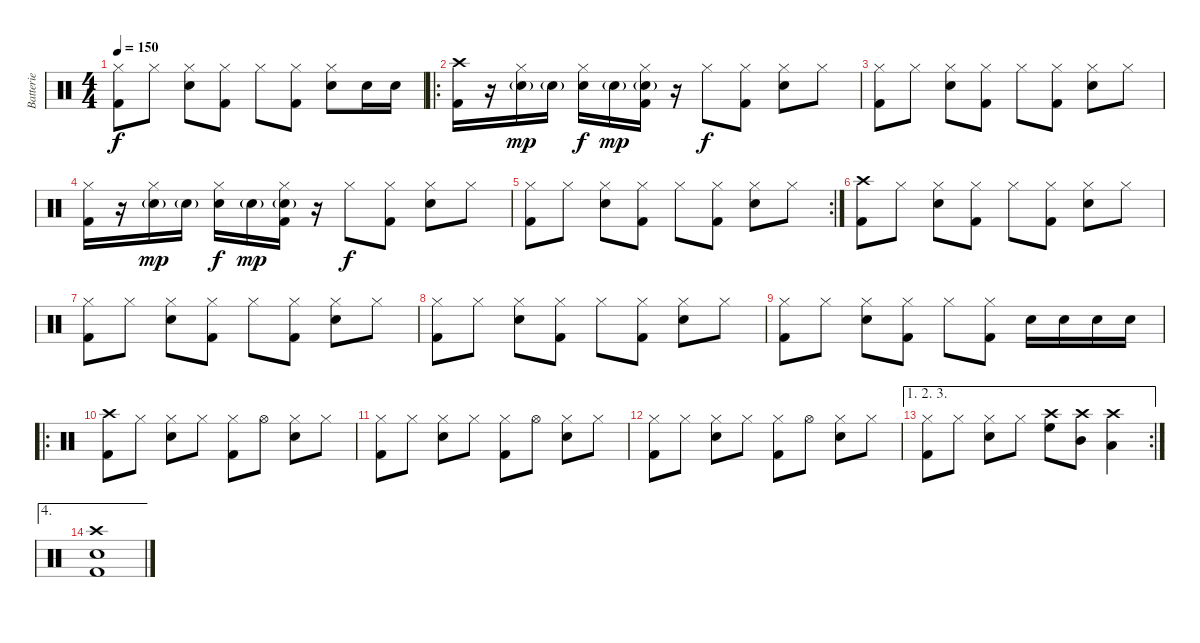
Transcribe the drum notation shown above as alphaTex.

\track ("Batterie" "Batterie") {instrument percussion}
\staff {score}
\articulation defaults
\ts (4 4)
\tempo 150
\clef neutral
\ks c
("Hi-Hat (closed)" "Kick (hit) 2").8{dy f} "Hi-Hat (closed)".8 ("Hi-Hat (closed)" "Snare (hit) 2").8 ("Hi-Hat (closed)" "Kick (hit) 2").8 "Hi-Hat (closed)".8 ("Hi-Hat (closed)" "Kick (hit) 2").8 ("Hi-Hat (closed)" "Snare (hit) 2").8 "Snare (hit) 2".16 "Snare (hit) 2".16 |
\ro
("Crash high (hit)" "Kick (hit) 2").16 r.16 ("Hi-Hat (closed)" "Snare (hit) 2"{g}).16{dy mp} "Snare (hit) 2"{g}.16 ("Hi-Hat (closed)" "Snare (hit) 2").16{dy f} "Snare (hit) 2"{g}.16{dy mp} ("Hi-Hat (closed)" "Snare (hit) 2"{g} "Kick (hit) 2").16 r.16 "Hi-Hat (closed)".8{dy f} ("Hi-Hat (closed)" "Kick (hit) 2").8 ("Hi-Hat (closed)" "Snare (hit) 2").8 "Hi-Hat (closed)".8 |
("Hi-Hat (closed)" "Kick (hit) 2").8 "Hi-Hat (closed)".8 ("Hi-Hat (closed)" "Snare (hit) 2").8 ("Hi-Hat (closed)" "Kick (hit) 2").8 "Hi-Hat (closed)".8 ("Hi-Hat (closed)" "Kick (hit) 2").8 ("Hi-Hat (closed)" "Snare (hit) 2").8 "Hi-Hat (closed)".8 |
("Hi-Hat (closed)" "Kick (hit) 2").16 r.16 ("Hi-Hat (closed)" "Snare (hit) 2"{g}).16{dy mp} "Snare (hit) 2"{g}.16 ("Hi-Hat (closed)" "Snare (hit) 2").16{dy f} "Snare (hit) 2"{g}.16{dy mp} ("Hi-Hat (closed)" "Snare (hit) 2"{g} "Kick (hit) 2").16 r.16 "Hi-Hat (closed)".8{dy f} ("Hi-Hat (closed)" "Kick (hit) 2").8 ("Hi-Hat (closed)" "Snare (hit) 2").8 "Hi-Hat (closed)".8 |
\rc 2
("Hi-Hat (closed)" "Kick (hit) 2").8 "Hi-Hat (closed)".8 ("Hi-Hat (closed)" "Snare (hit) 2").8 ("Hi-Hat (closed)" "Kick (hit) 2").8 "Hi-Hat (closed)".8 ("Hi-Hat (closed)" "Kick (hit) 2").8 ("Hi-Hat (closed)" "Snare (hit) 2").8 "Hi-Hat (closed)".8 |
("Crash high (hit)" "Kick (hit) 2").8 "Hi-Hat (closed)".8 ("Hi-Hat (closed)" "Snare (hit) 2").8 ("Hi-Hat (closed)" "Kick (hit) 2").8 "Hi-Hat (closed)".8 ("Hi-Hat (closed)" "Kick (hit) 2").8 ("Hi-Hat (closed)" "Snare (hit) 2").8 "Hi-Hat (closed)".8 |
("Hi-Hat (closed)" "Kick (hit) 2").8 "Hi-Hat (closed)".8 ("Hi-Hat (closed)" "Snare (hit) 2").8 ("Hi-Hat (closed)" "Kick (hit) 2").8 "Hi-Hat (closed)".8 ("Hi-Hat (closed)" "Kick (hit) 2").8 ("Hi-Hat (closed)" "Snare (hit) 2").8 "Hi-Hat (closed)".8 |
("Hi-Hat (closed)" "Kick (hit) 2").8 "Hi-Hat (closed)".8 ("Hi-Hat (closed)" "Snare (hit) 2").8 ("Hi-Hat (closed)" "Kick (hit) 2").8 "Hi-Hat (closed)".8 ("Hi-Hat (closed)" "Kick (hit) 2").8 ("Hi-Hat (closed)" "Snare (hit) 2").8 "Hi-Hat (closed)".8 |
("Hi-Hat (closed)" "Kick (hit) 2").8 "Hi-Hat (closed)".8 ("Hi-Hat (closed)" "Snare (hit) 2").8 ("Hi-Hat (closed)" "Kick (hit) 2").8 "Hi-Hat (closed)".8 ("Hi-Hat (closed)" "Kick (hit) 2").8 "Snare (hit) 2".16 "Snare (hit) 2".16 "Snare (hit) 2".16 "Snare (hit) 2".16 |
\ro
("Crash high (hit)" "Kick (hit) 2").8 "Hi-Hat (closed)".8 ("Hi-Hat (closed)" "Snare (hit) 2").8 "Hi-Hat (closed)".8 ("Hi-Hat (closed)" "Kick (hit) 2").8 "Hi-Hat (open)".8 ("Hi-Hat (closed)" "Snare (hit) 2").8 "Hi-Hat (closed)".8 |
("Hi-Hat (closed)" "Kick (hit) 2").8 "Hi-Hat (closed)".8 ("Hi-Hat (closed)" "Snare (hit) 2").8 "Hi-Hat (closed)".8 ("Hi-Hat (closed)" "Kick (hit) 2").8 "Hi-Hat (open)".8 ("Hi-Hat (closed)" "Snare (hit) 2").8 "Hi-Hat (closed)".8 |
("Hi-Hat (closed)" "Kick (hit) 2").8 "Hi-Hat (closed)".8 ("Hi-Hat (closed)" "Snare (hit) 2").8 "Hi-Hat (closed)".8 ("Hi-Hat (closed)" "Kick (hit) 2").8 "Hi-Hat (open)".8 ("Hi-Hat (closed)" "Snare (hit) 2").8 "Hi-Hat (closed)".8 |
\ae (1 2 3)
\rc 2
("Hi-Hat (closed)" "Kick (hit) 2").8 "Hi-Hat (closed)".8 ("Hi-Hat (closed)" "Snare (hit) 2").8 "Hi-Hat (closed)".8 ("Crash high (hit)" "High Floor Tom (hit)").8 ("Crash high (hit)" "Mid Tom (hit)").8 ("Crash high (hit)" "Low Tom (hit)").4 |
\ae 4
("Crash high (hit)" "Snare (hit) 2" "Kick (hit) 2").1
